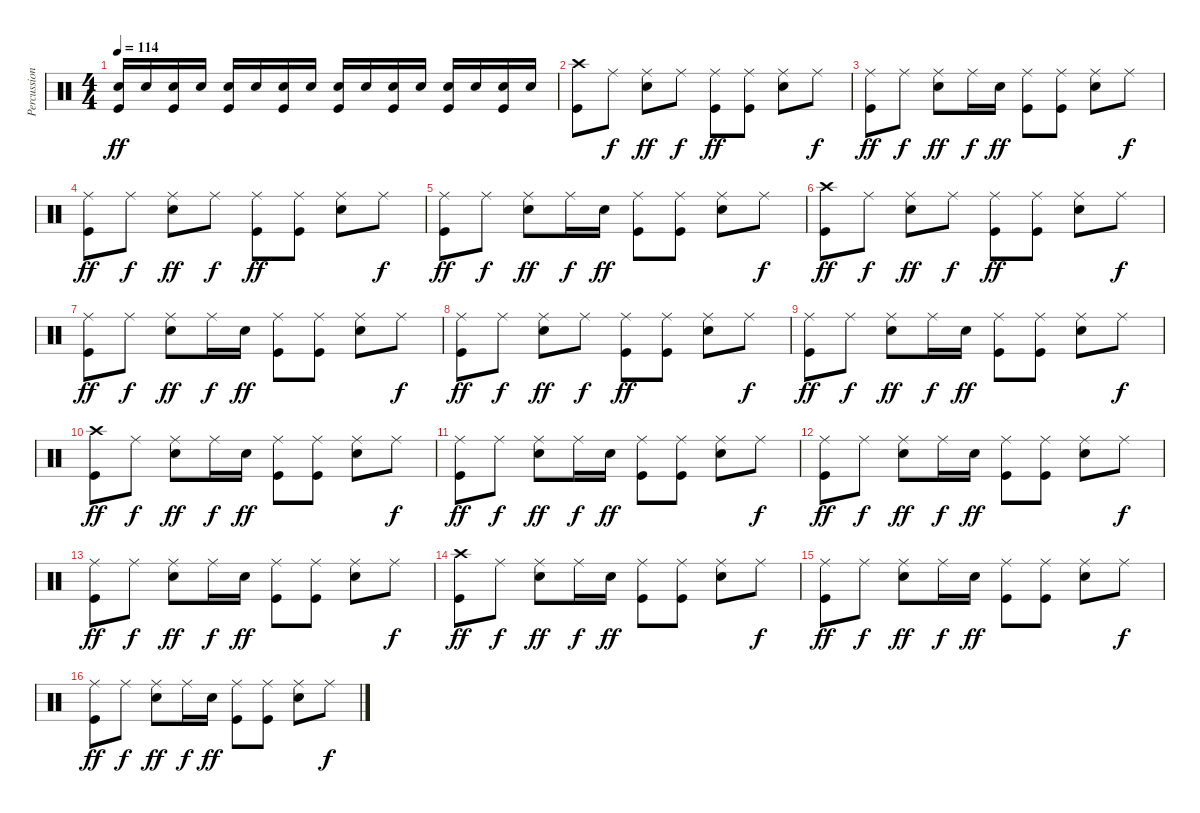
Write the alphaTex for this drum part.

\track ("Percussion" "Percussion") {instrument percussion}
\staff {score}
\articulation defaults
\ts (4 4)
\tempo 114
\clef neutral
\ks c
("Snare (hit) 2" "Kick (hit)").16{dy ff} "Snare (hit) 2".16 ("Snare (hit) 2" "Kick (hit)").16 "Snare (hit) 2".16 ("Snare (hit) 2" "Kick (hit)").16 "Snare (hit) 2".16 ("Snare (hit) 2" "Kick (hit)").16 "Snare (hit) 2".16 ("Snare (hit) 2" "Kick (hit)").16 "Snare (hit) 2".16 ("Snare (hit) 2" "Kick (hit)").16 "Snare (hit) 2".16 ("Snare (hit) 2" "Kick (hit)").16 "Snare (hit) 2".16 ("Snare (hit) 2" "Kick (hit)").16 "Snare (hit) 2".16 |
("Crash high (hit)" "Kick (hit)").8 "Ride (middle)".8{dy f} ("Ride (middle)" "Snare (hit) 2").8{dy ff} "Ride (middle)".8{dy f} ("Ride (middle)" "Kick (hit)").8{dy ff} ("Ride (middle)" "Kick (hit)").8 ("Ride (middle)" "Snare (hit) 2").8 "Ride (middle)".8{dy f} |
("Ride (middle)" "Kick (hit)").8{dy ff} "Ride (middle)".8{dy f} ("Ride (middle)" "Snare (hit) 2").8{dy ff} "Ride (middle)".16{dy f} "Snare (hit) 2".16{dy ff} ("Ride (middle)" "Kick (hit)").8 ("Ride (middle)" "Kick (hit)").8 ("Ride (middle)" "Snare (hit) 2").8 "Ride (middle)".8{dy f} |
("Ride (middle)" "Kick (hit)").8{dy ff} "Ride (middle)".8{dy f} ("Ride (middle)" "Snare (hit) 2").8{dy ff} "Ride (middle)".8{dy f} ("Ride (middle)" "Kick (hit)").8{dy ff} ("Ride (middle)" "Kick (hit)").8 ("Ride (middle)" "Snare (hit) 2").8 "Ride (middle)".8{dy f} |
("Ride (middle)" "Kick (hit)").8{dy ff} "Ride (middle)".8{dy f} ("Ride (middle)" "Snare (hit) 2").8{dy ff} "Ride (middle)".16{dy f} "Snare (hit) 2".16{dy ff} ("Ride (middle)" "Kick (hit)").8 ("Ride (middle)" "Kick (hit)").8 ("Ride (middle)" "Snare (hit) 2").8 "Ride (middle)".8{dy f} |
("Crash high (hit)" "Kick (hit)").8{dy ff} "Ride (middle)".8{dy f} ("Ride (middle)" "Snare (hit) 2").8{dy ff} "Ride (middle)".8{dy f} ("Ride (middle)" "Kick (hit)").8{dy ff} ("Ride (middle)" "Kick (hit)").8 ("Ride (middle)" "Snare (hit) 2").8 "Ride (middle)".8{dy f} |
("Ride (middle)" "Kick (hit)").8{dy ff} "Ride (middle)".8{dy f} ("Ride (middle)" "Snare (hit) 2").8{dy ff} "Ride (middle)".16{dy f} "Snare (hit) 2".16{dy ff} ("Ride (middle)" "Kick (hit)").8 ("Ride (middle)" "Kick (hit)").8 ("Ride (middle)" "Snare (hit) 2").8 "Ride (middle)".8{dy f} |
("Ride (middle)" "Kick (hit)").8{dy ff} "Ride (middle)".8{dy f} ("Ride (middle)" "Snare (hit) 2").8{dy ff} "Ride (middle)".8{dy f} ("Ride (middle)" "Kick (hit)").8{dy ff} ("Ride (middle)" "Kick (hit)").8 ("Ride (middle)" "Snare (hit) 2").8 "Ride (middle)".8{dy f} |
("Ride (middle)" "Kick (hit)").8{dy ff} "Ride (middle)".8{dy f} ("Ride (middle)" "Snare (hit) 2").8{dy ff} "Ride (middle)".16{dy f} "Snare (hit) 2".16{dy ff} ("Ride (middle)" "Kick (hit)").8 ("Ride (middle)" "Kick (hit)").8 ("Ride (middle)" "Snare (hit) 2").8 "Ride (middle)".8{dy f} |
("Crash high (hit)" "Kick (hit)").8{dy ff} "Ride (middle)".8{dy f} ("Ride (middle)" "Snare (hit) 2").8{dy ff} "Ride (middle)".16{dy f} "Snare (hit) 2".16{dy ff} ("Ride (middle)" "Kick (hit)").8 ("Ride (middle)" "Kick (hit)").8 ("Ride (middle)" "Snare (hit) 2").8 "Ride (middle)".8{dy f} |
("Ride (middle)" "Kick (hit)").8{dy ff} "Ride (middle)".8{dy f} ("Ride (middle)" "Snare (hit) 2").8{dy ff} "Ride (middle)".16{dy f} "Snare (hit) 2".16{dy ff} ("Ride (middle)" "Kick (hit)").8 ("Ride (middle)" "Kick (hit)").8 ("Ride (middle)" "Snare (hit) 2").8 "Ride (middle)".8{dy f} |
("Ride (middle)" "Kick (hit)").8{dy ff} "Ride (middle)".8{dy f} ("Ride (middle)" "Snare (hit) 2").8{dy ff} "Ride (middle)".16{dy f} "Snare (hit) 2".16{dy ff} ("Ride (middle)" "Kick (hit)").8 ("Ride (middle)" "Kick (hit)").8 ("Ride (middle)" "Snare (hit) 2").8 "Ride (middle)".8{dy f} |
("Ride (middle)" "Kick (hit)").8{dy ff} "Ride (middle)".8{dy f} ("Ride (middle)" "Snare (hit) 2").8{dy ff} "Ride (middle)".16{dy f} "Snare (hit) 2".16{dy ff} ("Ride (middle)" "Kick (hit)").8 ("Ride (middle)" "Kick (hit)").8 ("Ride (middle)" "Snare (hit) 2").8 "Ride (middle)".8{dy f} |
("Crash high (hit)" "Kick (hit)").8{dy ff} "Ride (middle)".8{dy f} ("Ride (middle)" "Snare (hit) 2").8{dy ff} "Ride (middle)".16{dy f} "Snare (hit) 2".16{dy ff} ("Ride (middle)" "Kick (hit)").8 ("Ride (middle)" "Kick (hit)").8 ("Ride (middle)" "Snare (hit) 2").8 "Ride (middle)".8{dy f} |
("Ride (middle)" "Kick (hit)").8{dy ff} "Ride (middle)".8{dy f} ("Ride (middle)" "Snare (hit) 2").8{dy ff} "Ride (middle)".16{dy f} "Snare (hit) 2".16{dy ff} ("Ride (middle)" "Kick (hit)").8 ("Ride (middle)" "Kick (hit)").8 ("Ride (middle)" "Snare (hit) 2").8 "Ride (middle)".8{dy f} |
("Ride (middle)" "Kick (hit)").8{dy ff} "Ride (middle)".8{dy f} ("Ride (middle)" "Snare (hit) 2").8{dy ff} "Ride (middle)".16{dy f} "Snare (hit) 2".16{dy ff} ("Ride (middle)" "Kick (hit)").8 ("Ride (middle)" "Kick (hit)").8 ("Ride (middle)" "Snare (hit) 2").8 "Ride (middle)".8{dy f}
